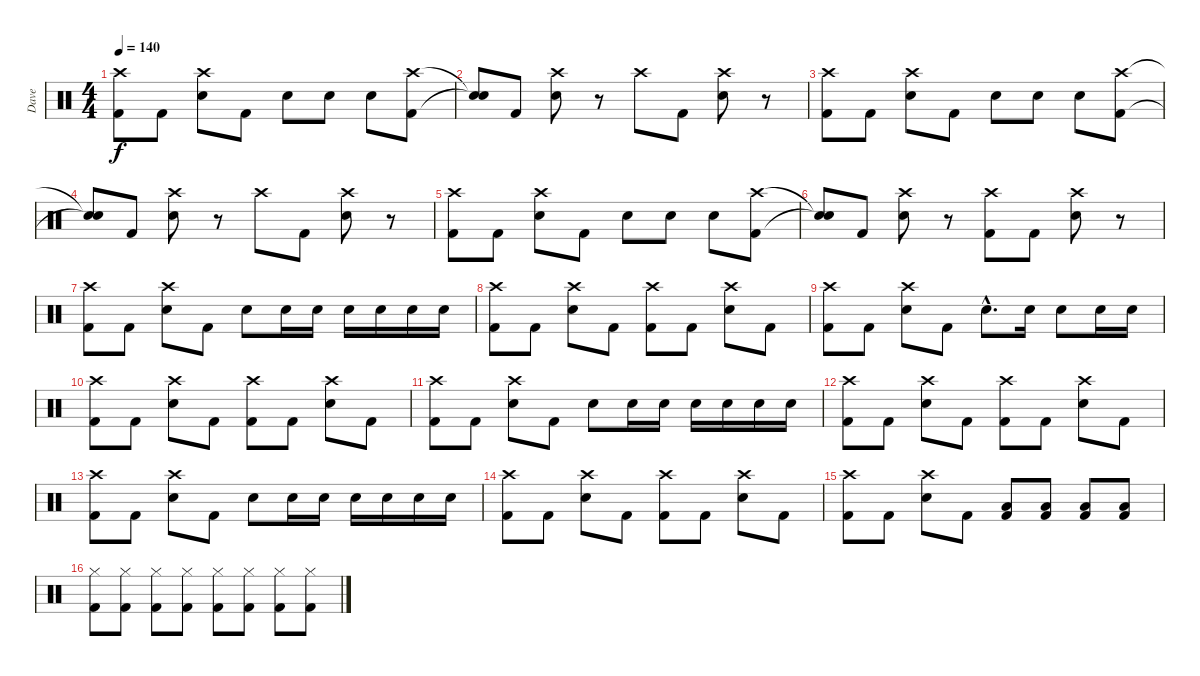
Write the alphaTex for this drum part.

\track ("Dave" "Dave") {instrument percussion}
\staff {score}
\articulation defaults
\ts (4 4)
\tempo 140
\clef neutral
\ks c
("Crash high (hit)" "Kick (hit) 2").8{dy f} "Kick (hit) 2".8 ("Crash high (hit)" "Snare (hit) 2").8 "Kick (hit) 2".8 "Snare (hit) 2".8 "Snare (hit) 2".8 "Snare (hit) 2".8 ("Crash high (hit)" "Kick (hit) 2").8 |
("Snare (hit)"{t} "Snare (hit)"{t}).8 "Kick (hit) 2".8 ("Crash high (hit)" "Snare (hit) 2").8 r.8 "Crash high (hit)".8 "Kick (hit) 2".8 ("Crash high (hit)" "Snare (hit) 2").8 r.8 |
("Crash high (hit)" "Kick (hit) 2").8 "Kick (hit) 2".8 ("Crash high (hit)" "Snare (hit) 2").8 "Kick (hit) 2".8 "Snare (hit) 2".8 "Snare (hit) 2".8 "Snare (hit) 2".8 ("Crash high (hit)" "Kick (hit) 2").8 |
("Snare (hit)"{t} "Snare (hit)"{t}).8 "Kick (hit) 2".8 ("Crash high (hit)" "Snare (hit) 2").8 r.8 "Crash high (hit)".8 "Kick (hit) 2".8 ("Crash high (hit)" "Snare (hit) 2").8 r.8 |
("Crash high (hit)" "Kick (hit) 2").8 "Kick (hit) 2".8 ("Crash high (hit)" "Snare (hit) 2").8 "Kick (hit) 2".8 "Snare (hit) 2".8 "Snare (hit) 2".8 "Snare (hit) 2".8 ("Crash high (hit)" "Kick (hit) 2").8 |
("Snare (hit)"{t} "Snare (hit)"{t}).8 "Kick (hit) 2".8 ("Crash high (hit)" "Snare (hit) 2").8 r.8 ("Crash high (hit)" "Kick (hit) 2").8 "Kick (hit) 2".8 ("Crash high (hit)" "Snare (hit) 2").8 r.8 |
("Crash high (hit)" "Kick (hit) 2").8 "Kick (hit) 2".8 ("Crash high (hit)" "Snare (hit) 2").8 "Kick (hit) 2".8 "Snare (hit) 2".8 "Snare (hit) 2".16 "Snare (hit) 2".16 "Snare (hit) 2".16 "Snare (hit) 2".16 "Snare (hit) 2".16 "Snare (hit) 2".16 |
("Crash high (hit)" "Kick (hit) 2").8 "Kick (hit) 2".8 ("Crash high (hit)" "Snare (hit) 2").8 "Kick (hit) 2".8 ("Crash high (hit)" "Kick (hit) 2").8 "Kick (hit) 2".8 ("Crash high (hit)" "Snare (hit) 2").8 "Kick (hit) 2".8 |
("Crash high (hit)" "Kick (hit) 2").8 "Kick (hit) 2".8 ("Crash high (hit)" "Snare (hit) 2").8 "Kick (hit) 2".8 "Snare (hit) 2"{hac}.8{d} "Snare (hit) 2".16 "Snare (hit) 2".8 "Snare (hit) 2".16 "Snare (hit) 2".16 |
("Crash high (hit)" "Kick (hit) 2").8 "Kick (hit) 2".8 ("Crash high (hit)" "Snare (hit) 2").8 "Kick (hit) 2".8 ("Crash high (hit)" "Kick (hit) 2").8 "Kick (hit) 2".8 ("Crash high (hit)" "Snare (hit) 2").8 "Kick (hit) 2".8 |
("Crash high (hit)" "Kick (hit) 2").8 "Kick (hit) 2".8 ("Crash high (hit)" "Snare (hit) 2").8 "Kick (hit) 2".8 "Snare (hit) 2".8 "Snare (hit) 2".16 "Snare (hit) 2".16 "Snare (hit) 2".16 "Snare (hit) 2".16 "Snare (hit) 2".16 "Snare (hit) 2".16 |
("Crash high (hit)" "Kick (hit) 2").8 "Kick (hit) 2".8 ("Crash high (hit)" "Snare (hit) 2").8 "Kick (hit) 2".8 ("Crash high (hit)" "Kick (hit) 2").8 "Kick (hit) 2".8 ("Crash high (hit)" "Snare (hit) 2").8 "Kick (hit) 2".8 |
("Crash high (hit)" "Kick (hit) 2").8 "Kick (hit) 2".8 ("Crash high (hit)" "Snare (hit) 2").8 "Kick (hit) 2".8 "Snare (hit) 2".8 "Snare (hit) 2".16 "Snare (hit) 2".16 "Snare (hit) 2".16 "Snare (hit) 2".16 "Snare (hit) 2".16 "Snare (hit) 2".16 |
("Crash high (hit)" "Kick (hit) 2").8 "Kick (hit) 2".8 ("Crash high (hit)" "Snare (hit) 2").8 "Kick (hit) 2".8 ("Crash high (hit)" "Kick (hit) 2").8 "Kick (hit) 2".8 ("Crash high (hit)" "Snare (hit) 2").8 "Kick (hit) 2".8 |
("Crash high (hit)" "Kick (hit) 2").8 "Kick (hit) 2".8 ("Crash high (hit)" "Snare (hit) 2").8 "Kick (hit) 2".8 ("Low Floor Tom (hit)" "Kick (hit) 2").8 ("Low Floor Tom (hit)" "Kick (hit) 2").8 ("Low Floor Tom (hit)" "Kick (hit) 2").8 ("Low Floor Tom (hit)" "Kick (hit) 2").8 |
("Hi-Hat (closed)" "Kick (hit) 2").8 ("Hi-Hat (closed)" "Kick (hit) 2").8 ("Hi-Hat (closed)" "Kick (hit) 2").8 ("Hi-Hat (closed)" "Kick (hit) 2").8 ("Hi-Hat (closed)" "Kick (hit) 2").8 ("Hi-Hat (closed)" "Kick (hit) 2").8 ("Hi-Hat (closed)" "Kick (hit) 2").8 ("Hi-Hat (closed)" "Kick (hit) 2").8
